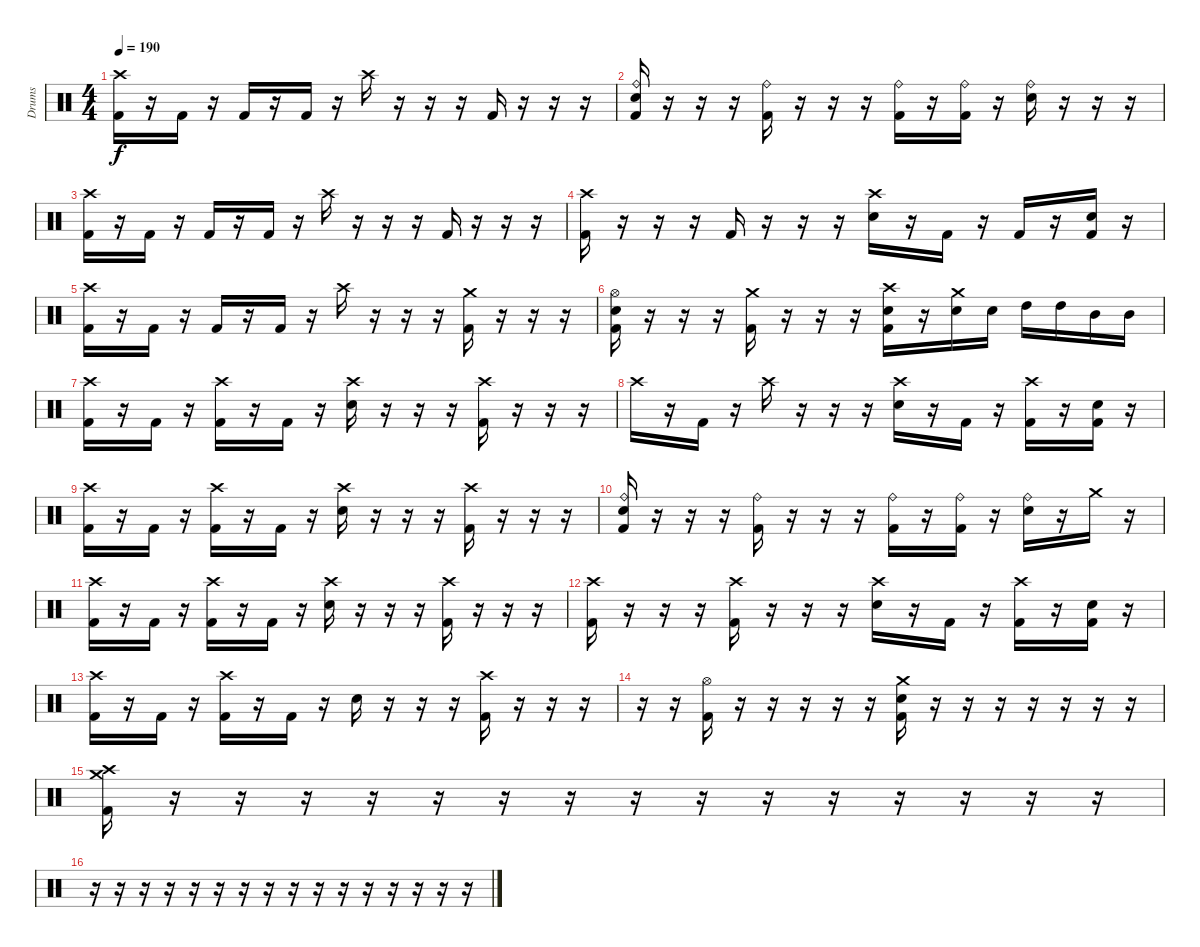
\track ("Drums" "Drums") {instrument percussion}
\staff {score}
\articulation defaults
\ts (4 4)
\tempo 190
\clef neutral
\ks c
("Crash high (hit)" "Kick (hit) 2").16{dy f} r.16 "Kick (hit) 2".16 r.16 "Kick (hit) 2".16 r.16 "Kick (hit) 2".16 r.16 "Crash high (hit)".16 r.16 r.16 r.16 "Kick (hit) 2".16 r.16 r.16 r.16 |
("Ride (bell)" "Electric Snare (hit)" "Kick (hit) 2").16 r.16 r.16 r.16 ("Ride (bell)" "Kick (hit) 2").16 r.16 r.16 r.16 ("Ride (bell)" "Kick (hit) 2").16 r.16 ("Ride (bell)" "Kick (hit) 2").16 r.16 ("Ride (bell)" "Electric Snare (hit)").16 r.16 r.16 r.16 |
("Crash high (hit)" "Kick (hit) 2").16 r.16 "Kick (hit) 2".16 r.16 "Kick (hit) 2".16 r.16 "Kick (hit) 2".16 r.16 "Crash high (hit)".16 r.16 r.16 r.16 "Kick (hit) 2".16 r.16 r.16 r.16 |
("Crash high (hit)" "Kick (hit) 2").16 r.16 r.16 r.16 "Kick (hit) 2".16 r.16 r.16 r.16 ("Crash high (hit)" "Electric Snare (hit)").16 r.16 "Kick (hit) 2".16 r.16 "Kick (hit) 2".16 r.16 ("Electric Snare (hit)" "Kick (hit) 2").16 r.16 |
("Crash high (hit)" "Kick (hit) 2").16 r.16 "Kick (hit) 2".16 r.16 "Kick (hit) 2".16 r.16 "Kick (hit) 2".16 r.16 "Crash high (hit)".16 r.16 r.16 r.16 ("Crash medium (hit)" "Kick (hit) 2").16 r.16 r.16 r.16 |
("Hi-Hat (open)" "Electric Snare (hit)" "Kick (hit) 2").16 r.16 r.16 r.16 ("Crash medium (hit)" "Kick (hit) 2").16 r.16 r.16 r.16 ("Crash high (hit)" "Electric Snare (hit)" "Kick (hit) 2").16 r.16 ("Crash medium (hit)" "Electric Snare (hit)").16 "Electric Snare (hit)".16 "High Tom (hit)".16 "High Tom (hit)".16 "Mid Tom (hit)".16 "Mid Tom (hit)".16 |
("Crash high (hit)" "Kick (hit) 2").16 r.16 "Kick (hit) 2".16 r.16 ("Crash high (hit)" "Kick (hit) 2").16 r.16 "Kick (hit) 2".16 r.16 ("Crash high (hit)" "Electric Snare (hit)").16 r.16 r.16 r.16 ("Crash high (hit)" "Kick (hit) 2").16 r.16 r.16 r.16 |
"Crash high (hit)".16 r.16 "Kick (hit) 2".16 r.16 "Crash high (hit)".16 r.16 r.16 r.16 ("Crash high (hit)" "Electric Snare (hit)").16 r.16 "Kick (hit) 2".16 r.16 ("Crash high (hit)" "Kick (hit) 2").16 r.16 ("Electric Snare (hit)" "Kick (hit) 2").16 r.16 |
("Crash high (hit)" "Kick (hit) 2").16 r.16 "Kick (hit) 2".16 r.16 ("Crash high (hit)" "Kick (hit) 2").16 r.16 "Kick (hit) 2".16 r.16 ("Crash high (hit)" "Electric Snare (hit)").16 r.16 r.16 r.16 ("Crash high (hit)" "Kick (hit) 2").16 r.16 r.16 r.16 |
("Ride (bell)" "Electric Snare (hit)" "Kick (hit) 2").16 r.16 r.16 r.16 ("Ride (bell)" "Kick (hit) 2").16 r.16 r.16 r.16 ("Ride (bell)" "Kick (hit) 2").16 r.16 ("Ride (bell)" "Kick (hit) 2").16 r.16 ("Ride (bell)" "Electric Snare (hit)").16 r.16 "Crash medium (hit)".16 r.16 |
("Crash high (hit)" "Kick (hit) 2").16 r.16 "Kick (hit) 2".16 r.16 ("Crash high (hit)" "Kick (hit) 2").16 r.16 "Kick (hit) 2".16 r.16 ("Crash high (hit)" "Electric Snare (hit)").16 r.16 r.16 r.16 ("Crash high (hit)" "Kick (hit) 2").16 r.16 r.16 r.16 |
("Crash high (hit)" "Kick (hit) 2").16 r.16 r.16 r.16 ("Crash high (hit)" "Kick (hit) 2").16 r.16 r.16 r.16 ("Crash high (hit)" "Electric Snare (hit)").16 r.16 "Kick (hit) 2".16 r.16 ("Crash high (hit)" "Kick (hit) 2").16 r.16 ("Electric Snare (hit)" "Kick (hit) 2").16 r.16 |
("Crash high (hit)" "Kick (hit) 2").16 r.16 "Kick (hit) 2".16 r.16 ("Crash high (hit)" "Kick (hit) 2").16 r.16 "Kick (hit) 2".16 r.16 "Electric Snare (hit)".16 r.16 r.16 r.16 ("Crash high (hit)" "Kick (hit) 2").16 r.16 r.16 r.16 |
r.16 r.16 ("Hi-Hat (open)" "Kick (hit) 2").16 r.16 r.16 r.16 r.16 r.16 ("Crash medium (hit)" "Electric Snare (hit)" "Kick (hit) 2").16 r.16 r.16 r.16 r.16 r.16 r.16 r.16 |
("Crash high (hit)" "Crash medium (hit)" "Kick (hit) 2").16 r.16 r.16 r.16 r.16 r.16 r.16 r.16 r.16 r.16 r.16 r.16 r.16 r.16 r.16 r.16 |
r.16 r.16 r.16 r.16 r.16 r.16 r.16 r.16 r.16 r.16 r.16 r.16 r.16 r.16 r.16 r.16
